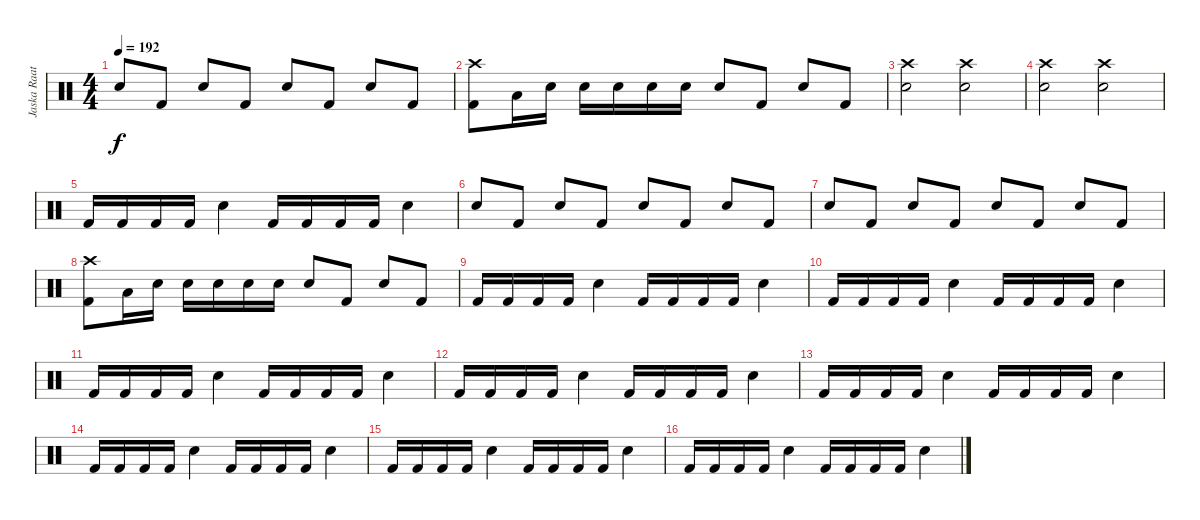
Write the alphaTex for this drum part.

\track ("Jaska Raatikainen " "Jaska Raat") {instrument percussion}
\staff {score}
\articulation defaults
\ts (4 4)
\tempo 192
\clef neutral
\ks c "Snare (hit) 2".8{dy f} "Kick (hit) 2".8 "Snare (hit) 2".8 "Kick (hit) 2".8 "Snare (hit) 2".8 "Kick (hit) 2".8 "Snare (hit) 2".8 "Kick (hit) 2".8
|
("Crash high (hit)" "Kick (hit) 2").8 "Low Floor Tom (hit)".16 "Snare (hit) 2".16 "Snare (hit) 2".16 "Snare (hit) 2".16 "Snare (hit) 2".16 "Snare (hit) 2".16 "Snare (hit) 2".8 "Kick (hit) 2".8 "Snare (hit) 2".8 "Kick (hit) 2".8 |
("Crash high (hit)" "Snare (hit) 2").2 ("Crash high (hit)" "Snare (hit) 2").2 |
("Crash high (hit)" "Snare (hit) 2").2 ("Crash high (hit)" "Snare (hit) 2").2 |
"Kick (hit) 2".16 "Kick (hit) 2".16 "Kick (hit) 2".16 "Kick (hit) 2".16 "Snare (hit) 2".4 "Kick (hit) 2".16 "Kick (hit) 2".16 "Kick (hit) 2".16 "Kick (hit) 2".16 "Snare (hit) 2".4 |
"Snare (hit) 2".8 "Kick (hit) 2".8 "Snare (hit) 2".8 "Kick (hit) 2".8 "Snare (hit) 2".8 "Kick (hit) 2".8 "Snare (hit) 2".8 "Kick (hit) 2".8 |
"Snare (hit) 2".8 "Kick (hit) 2".8 "Snare (hit) 2".8 "Kick (hit) 2".8 "Snare (hit) 2".8 "Kick (hit) 2".8 "Snare (hit) 2".8 "Kick (hit) 2".8 |
("Crash high (hit)" "Kick (hit) 2").8 "Low Floor Tom (hit)".16 "Snare (hit) 2".16 "Snare (hit) 2".16 "Snare (hit) 2".16 "Snare (hit) 2".16 "Snare (hit) 2".16 "Snare (hit) 2".8 "Kick (hit) 2".8 "Snare (hit) 2".8 "Kick (hit) 2".8 |
"Kick (hit) 2".16 "Kick (hit) 2".16 "Kick (hit) 2".16 "Kick (hit) 2".16 "Snare (hit) 2".4 "Kick (hit) 2".16 "Kick (hit) 2".16 "Kick (hit) 2".16 "Kick (hit) 2".16 "Snare (hit) 2".4 |
"Kick (hit) 2".16 "Kick (hit) 2".16 "Kick (hit) 2".16 "Kick (hit) 2".16 "Snare (hit) 2".4 "Kick (hit) 2".16 "Kick (hit) 2".16 "Kick (hit) 2".16 "Kick (hit) 2".16 "Snare (hit) 2".4 |
"Kick (hit) 2".16 "Kick (hit) 2".16 "Kick (hit) 2".16 "Kick (hit) 2".16 "Snare (hit) 2".4 "Kick (hit) 2".16 "Kick (hit) 2".16 "Kick (hit) 2".16 "Kick (hit) 2".16 "Snare (hit) 2".4 |
"Kick (hit) 2".16 "Kick (hit) 2".16 "Kick (hit) 2".16 "Kick (hit) 2".16 "Snare (hit) 2".4 "Kick (hit) 2".16 "Kick (hit) 2".16 "Kick (hit) 2".16 "Kick (hit) 2".16 "Snare (hit) 2".4 |
"Kick (hit) 2".16 "Kick (hit) 2".16 "Kick (hit) 2".16 "Kick (hit) 2".16 "Snare (hit) 2".4 "Kick (hit) 2".16 "Kick (hit) 2".16 "Kick (hit) 2".16 "Kick (hit) 2".16 "Snare (hit) 2".4 |
"Kick (hit) 2".16 "Kick (hit) 2".16 "Kick (hit) 2".16 "Kick (hit) 2".16 "Snare (hit) 2".4 "Kick (hit) 2".16 "Kick (hit) 2".16 "Kick (hit) 2".16 "Kick (hit) 2".16 "Snare (hit) 2".4 |
"Kick (hit) 2".16 "Kick (hit) 2".16 "Kick (hit) 2".16 "Kick (hit) 2".16 "Snare (hit) 2".4 "Kick (hit) 2".16 "Kick (hit) 2".16 "Kick (hit) 2".16 "Kick (hit) 2".16 "Snare (hit) 2".4 |
"Kick (hit) 2".16 "Kick (hit) 2".16 "Kick (hit) 2".16 "Kick (hit) 2".16 "Snare (hit) 2".4 "Kick (hit) 2".16 "Kick (hit) 2".16 "Kick (hit) 2".16 "Kick (hit) 2".16 "Snare (hit) 2".4
